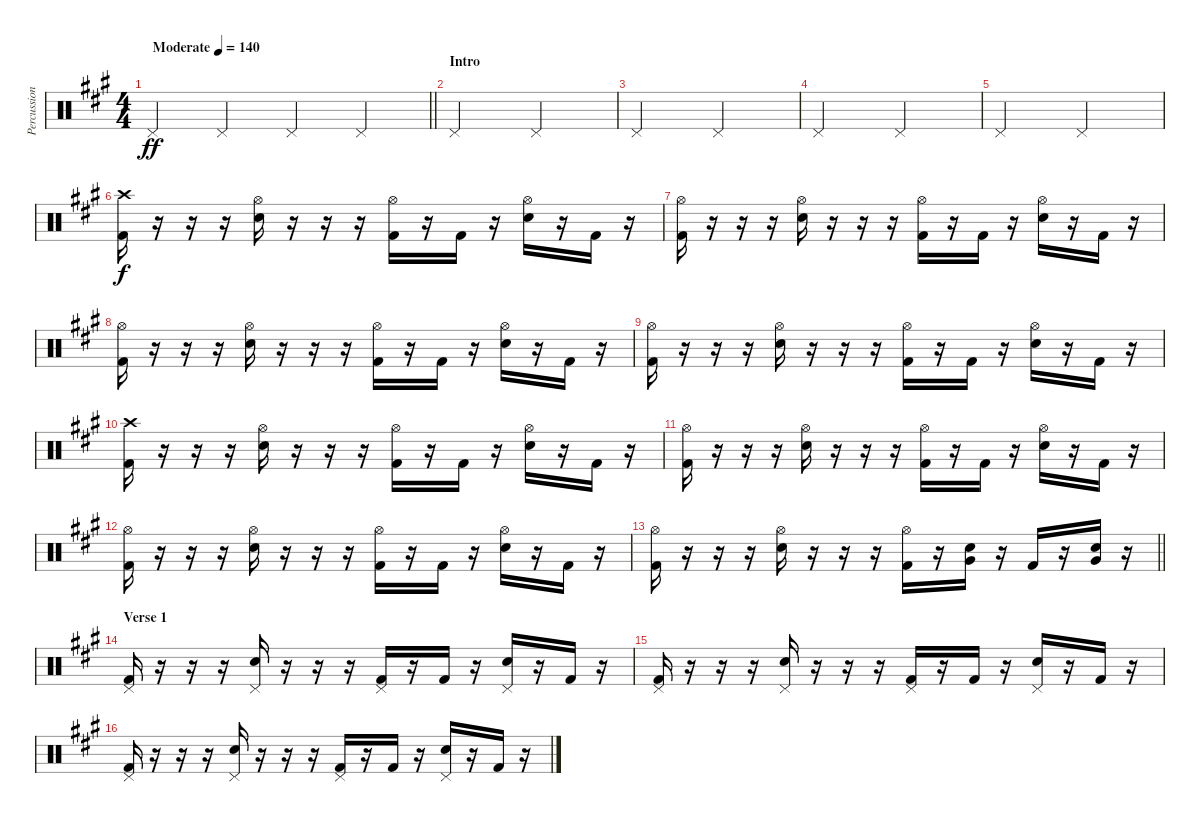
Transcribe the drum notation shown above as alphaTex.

\track ("Percussion" "Percussion") {instrument percussion}
\staff {score}
\articulation defaults
\ts (4 4)
\tempo (140 "Moderate")
\clef neutral
\barLineRight lightlight
\ks a "Pedal Hi-Hat (hit)".4{dy ff} "Pedal Hi-Hat (hit)".4{beam merge} "Pedal Hi-Hat (hit)".4{beam merge} "Pedal Hi-Hat (hit)".4
|
\section ("" "Intro")
"Pedal Hi-Hat (hit)".2 "Pedal Hi-Hat (hit)".2 |
"Pedal Hi-Hat (hit)".2 "Pedal Hi-Hat (hit)".2 |
"Pedal Hi-Hat (hit)".2 "Pedal Hi-Hat (hit)".2 |
"Pedal Hi-Hat (hit)".2{beam merge} "Pedal Hi-Hat (hit)".2 |
("Kick (hit) 2" "Crash high (hit)").16{dy f} r.16{beam merge} r.16 r.16{beam merge} ("Electric Snare (hit)" "Hi-Hat (open)").16 r.16 r.16{beam merge} r.16 ("Kick (hit) 2" "Hi-Hat (open)").16 r.16 "Kick (hit) 2".16 r.16 ("Electric Snare (hit)" "Hi-Hat (open)").16 r.16{beam merge} "Kick (hit) 2".16 r.16 |
("Kick (hit) 2" "Hi-Hat (open)").16 r.16{beam merge} r.16 r.16{beam merge} ("Electric Snare (hit)" "Hi-Hat (open)").16 r.16 r.16{beam merge} r.16 ("Kick (hit) 2" "Hi-Hat (open)").16 r.16 "Kick (hit) 2".16 r.16 ("Electric Snare (hit)" "Hi-Hat (open)").16 r.16{beam merge} "Kick (hit) 2".16 r.16 |
("Kick (hit) 2" "Hi-Hat (open)").16 r.16{beam merge} r.16 r.16{beam merge} ("Electric Snare (hit)" "Hi-Hat (open)").16 r.16 r.16{beam merge} r.16 ("Kick (hit) 2" "Hi-Hat (open)").16 r.16 "Kick (hit) 2".16 r.16 ("Electric Snare (hit)" "Hi-Hat (open)").16 r.16{beam merge} "Kick (hit) 2".16 r.16 |
("Kick (hit) 2" "Hi-Hat (open)").16 r.16{beam merge} r.16 r.16{beam merge} ("Electric Snare (hit)" "Hi-Hat (open)").16 r.16 r.16{beam merge} r.16 ("Kick (hit) 2" "Hi-Hat (open)").16 r.16 "Kick (hit) 2".16 r.16 ("Electric Snare (hit)" "Hi-Hat (open)").16 r.16{beam merge} "Kick (hit) 2".16 r.16 |
("Kick (hit) 2" "Crash high (hit)").16 r.16{beam merge} r.16 r.16{beam merge} ("Electric Snare (hit)" "Hi-Hat (open)").16 r.16 r.16{beam merge} r.16 ("Kick (hit) 2" "Hi-Hat (open)").16 r.16 "Kick (hit) 2".16 r.16 ("Electric Snare (hit)" "Hi-Hat (open)").16 r.16{beam merge} "Kick (hit) 2".16 r.16 |
("Kick (hit) 2" "Hi-Hat (open)").16 r.16{beam merge} r.16 r.16{beam merge} ("Electric Snare (hit)" "Hi-Hat (open)").16 r.16 r.16{beam merge} r.16 ("Kick (hit) 2" "Hi-Hat (open)").16 r.16 "Kick (hit) 2".16 r.16 ("Electric Snare (hit)" "Hi-Hat (open)").16 r.16{beam merge} "Kick (hit) 2".16 r.16 |
("Kick (hit) 2" "Hi-Hat (open)").16 r.16{beam merge} r.16 r.16{beam merge} ("Electric Snare (hit)" "Hi-Hat (open)").16 r.16 r.16{beam merge} r.16 ("Kick (hit) 2" "Hi-Hat (open)").16 r.16 "Kick (hit) 2".16 r.16 ("Electric Snare (hit)" "Hi-Hat (open)").16 r.16{beam merge} "Kick (hit) 2".16 r.16 |
\barLineRight lightlight
("Kick (hit) 2" "Hi-Hat (open)").16 r.16{beam merge} r.16 r.16{beam merge} ("Electric Snare (hit)" "Hi-Hat (open)").16 r.16 r.16{beam merge} r.16 ("Kick (hit) 2" "Hi-Hat (open)").16 r.16 ("Electric Snare (hit)" "Very Low Tom (hit)").16 r.16 "Kick (hit) 2".16 r.16{beam merge} ("Electric Snare (hit)" "Very Low Tom (hit)").16 r.16 |
\section ("" "Verse 1")
("Kick (hit) 2" "Pedal Hi-Hat (hit)").16 r.16{beam merge} r.16 r.16{beam merge} ("Electric Snare (hit)" "Pedal Hi-Hat (hit)").16 r.16 r.16{beam merge} r.16 ("Kick (hit) 2" "Pedal Hi-Hat (hit)").16 r.16 "Kick (hit) 2".16 r.16 ("Electric Snare (hit)" "Pedal Hi-Hat (hit)").16 r.16{beam merge} "Kick (hit) 2".16 r.16 |
("Kick (hit) 2" "Pedal Hi-Hat (hit)").16 r.16{beam merge} r.16 r.16{beam merge} ("Electric Snare (hit)" "Pedal Hi-Hat (hit)").16 r.16 r.16{beam merge} r.16 ("Kick (hit) 2" "Pedal Hi-Hat (hit)").16 r.16 "Kick (hit) 2".16 r.16 ("Electric Snare (hit)" "Pedal Hi-Hat (hit)").16 r.16{beam merge} "Kick (hit) 2".16 r.16 |
("Kick (hit) 2" "Pedal Hi-Hat (hit)").16 r.16{beam merge} r.16 r.16{beam merge} ("Electric Snare (hit)" "Pedal Hi-Hat (hit)").16 r.16 r.16{beam merge} r.16 ("Kick (hit) 2" "Pedal Hi-Hat (hit)").16 r.16 "Kick (hit) 2".16 r.16 ("Electric Snare (hit)" "Pedal Hi-Hat (hit)").16 r.16{beam merge} "Kick (hit) 2".16 r.16
